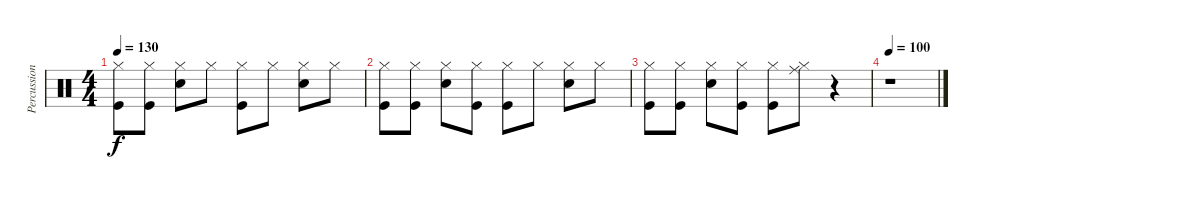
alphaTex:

\track ("Percussion" "Percussion") {instrument percussion}
\staff {score}
\articulation defaults
\ts (4 4)
\tempo 130
\clef neutral
\ks c
("Kick (hit)" "Hi-Hat (closed)").8{dy f} ("Kick (hit)" "Hi-Hat (closed)").8 ("Snare (hit) 2" "Hi-Hat (closed)").8 "Hi-Hat (closed)".8 ("Kick (hit)" "Hi-Hat (closed)").8 "Hi-Hat (closed)".8 ("Snare (hit) 2" "Hi-Hat (closed)").8 "Hi-Hat (closed)".8 |
("Kick (hit)" "Hi-Hat (closed)").8 ("Kick (hit)" "Hi-Hat (closed)").8 ("Snare (hit) 2" "Hi-Hat (closed)").8 ("Kick (hit)" "Hi-Hat (closed)").8 ("Kick (hit)" "Hi-Hat (closed)").8 "Hi-Hat (closed)".8 ("Snare (hit) 2" "Hi-Hat (closed)").8 "Hi-Hat (closed)".8 |
("Kick (hit)" "Hi-Hat (closed)").8 ("Kick (hit)" "Hi-Hat (closed)").8 ("Snare (hit) 2" "Hi-Hat (closed)").8 ("Kick (hit)" "Hi-Hat (closed)").8 ("Kick (hit)" "Hi-Hat (closed)").8 ("Ride (middle)" "Hi-Hat (closed)").8 r.4 |
\tempo 100
r.1
